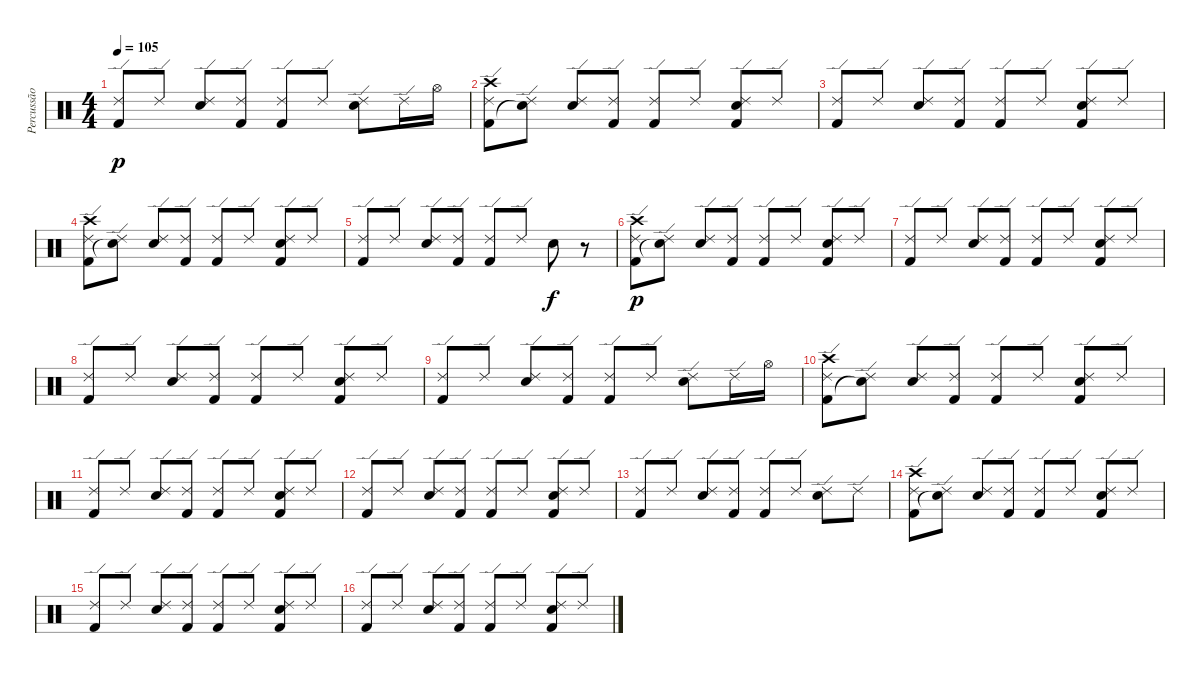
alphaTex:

\track ("Percussão" "Percussão") {instrument percussion}
\staff {score}
\articulation defaults
\ts (4 4)
\tempo 105
\clef neutral
\ks c
("Kick (hit) 2" "Ride (edge) 2").8{dy p} "Ride (edge) 2".8 ("Ride (edge) 2" "Electric Snare (hit)").8 ("Kick (hit) 2" "Ride (edge) 2").8 ("Kick (hit) 2" "Ride (edge) 2").8 "Ride (edge) 2".8 ("Ride (edge) 2" "Electric Snare (hit)").8 "Ride (edge) 2".16 "Hi-Hat (open)".16 |
("Kick (hit) 2" "Crash high (hit)" "Ride (edge) 2").8 ("Snare (hit)"{t} "Ride (edge) 2").8 ("Ride (edge) 2" "Electric Snare (hit)").8 ("Kick (hit) 2" "Ride (edge) 2").8 ("Kick (hit) 2" "Ride (edge) 2").8 "Ride (edge) 2".8 ("Kick (hit) 2" "Ride (edge) 2" "Electric Snare (hit)").8 "Ride (edge) 2".8 |
("Kick (hit) 2" "Ride (edge) 2").8 "Ride (edge) 2".8 ("Ride (edge) 2" "Electric Snare (hit)").8 ("Kick (hit) 2" "Ride (edge) 2").8 ("Kick (hit) 2" "Ride (edge) 2").8 "Ride (edge) 2".8 ("Kick (hit) 2" "Ride (edge) 2" "Electric Snare (hit)").8 "Ride (edge) 2".8 |
("Kick (hit) 2" "Crash high (hit)" "Ride (edge) 2").8 ("Snare (hit)"{t} "Ride (edge) 2").8 ("Ride (edge) 2" "Electric Snare (hit)").8 ("Kick (hit) 2" "Ride (edge) 2").8 ("Kick (hit) 2" "Ride (edge) 2").8 "Ride (edge) 2".8 ("Kick (hit) 2" "Ride (edge) 2" "Electric Snare (hit)").8 "Ride (edge) 2".8 |
("Kick (hit) 2" "Ride (edge) 2").8 "Ride (edge) 2".8 ("Ride (edge) 2" "Electric Snare (hit)").8 ("Kick (hit) 2" "Ride (edge) 2").8 ("Kick (hit) 2" "Ride (edge) 2").8 "Ride (edge) 2".8 "Electric Snare (hit)".8{dy f} r.8 |
("Kick (hit) 2" "Crash high (hit)" "Ride (edge) 2").8{dy p} ("Snare (hit)"{t} "Ride (edge) 2").8 ("Ride (edge) 2" "Electric Snare (hit)").8 ("Kick (hit) 2" "Ride (edge) 2").8 ("Kick (hit) 2" "Ride (edge) 2").8 "Ride (edge) 2".8 ("Kick (hit) 2" "Ride (edge) 2" "Electric Snare (hit)").8 "Ride (edge) 2".8 |
("Kick (hit) 2" "Ride (edge) 2").8 "Ride (edge) 2".8 ("Ride (edge) 2" "Electric Snare (hit)").8 ("Kick (hit) 2" "Ride (edge) 2").8 ("Kick (hit) 2" "Ride (edge) 2").8 "Ride (edge) 2".8 ("Kick (hit) 2" "Ride (edge) 2" "Electric Snare (hit)").8 "Ride (edge) 2".8 |
("Kick (hit) 2" "Ride (edge) 2").8 "Ride (edge) 2".8 ("Ride (edge) 2" "Electric Snare (hit)").8 ("Kick (hit) 2" "Ride (edge) 2").8 ("Kick (hit) 2" "Ride (edge) 2").8 "Ride (edge) 2".8 ("Kick (hit) 2" "Ride (edge) 2" "Electric Snare (hit)").8 "Ride (edge) 2".8 |
("Kick (hit) 2" "Ride (edge) 2").8 "Ride (edge) 2".8 ("Ride (edge) 2" "Electric Snare (hit)").8 ("Kick (hit) 2" "Ride (edge) 2").8 ("Kick (hit) 2" "Ride (edge) 2").8 "Ride (edge) 2".8 ("Ride (edge) 2" "Electric Snare (hit)").8 "Ride (edge) 2".16 "Hi-Hat (open)".16 |
("Kick (hit) 2" "Crash high (hit)" "Ride (edge) 2").8 ("Snare (hit)"{t} "Ride (edge) 2").8 ("Ride (edge) 2" "Electric Snare (hit)").8 ("Kick (hit) 2" "Ride (edge) 2").8 ("Kick (hit) 2" "Ride (edge) 2").8 "Ride (edge) 2".8 ("Kick (hit) 2" "Ride (edge) 2" "Electric Snare (hit)").8 "Ride (edge) 2".8 |
("Kick (hit) 2" "Ride (edge) 2").8 "Ride (edge) 2".8 ("Ride (edge) 2" "Electric Snare (hit)").8 ("Kick (hit) 2" "Ride (edge) 2").8 ("Kick (hit) 2" "Ride (edge) 2").8 "Ride (edge) 2".8 ("Kick (hit) 2" "Ride (edge) 2" "Electric Snare (hit)").8 "Ride (edge) 2".8 |
("Kick (hit) 2" "Ride (edge) 2").8 "Ride (edge) 2".8 ("Ride (edge) 2" "Electric Snare (hit)").8 ("Kick (hit) 2" "Ride (edge) 2").8 ("Kick (hit) 2" "Ride (edge) 2").8 "Ride (edge) 2".8 ("Kick (hit) 2" "Ride (edge) 2" "Electric Snare (hit)").8 "Ride (edge) 2".8 |
("Kick (hit) 2" "Ride (edge) 2").8 "Ride (edge) 2".8 ("Ride (edge) 2" "Electric Snare (hit)").8 ("Kick (hit) 2" "Ride (edge) 2").8 ("Kick (hit) 2" "Ride (edge) 2").8 "Ride (edge) 2".8 ("Ride (edge) 2" "Electric Snare (hit)").8 "Ride (edge) 2".8 |
("Kick (hit) 2" "Crash high (hit)" "Ride (edge) 2").8 ("Snare (hit)"{t} "Ride (edge) 2").8 ("Ride (edge) 2" "Electric Snare (hit)").8 ("Kick (hit) 2" "Ride (edge) 2").8 ("Kick (hit) 2" "Ride (edge) 2").8 "Ride (edge) 2".8 ("Kick (hit) 2" "Ride (edge) 2" "Electric Snare (hit)").8 "Ride (edge) 2".8 |
("Kick (hit) 2" "Ride (edge) 2").8 "Ride (edge) 2".8 ("Ride (edge) 2" "Electric Snare (hit)").8 ("Kick (hit) 2" "Ride (edge) 2").8 ("Kick (hit) 2" "Ride (edge) 2").8 "Ride (edge) 2".8 ("Kick (hit) 2" "Ride (edge) 2" "Electric Snare (hit)").8 "Ride (edge) 2".8 |
("Kick (hit) 2" "Ride (edge) 2").8 "Ride (edge) 2".8 ("Ride (edge) 2" "Electric Snare (hit)").8 ("Kick (hit) 2" "Ride (edge) 2").8 ("Kick (hit) 2" "Ride (edge) 2").8 "Ride (edge) 2".8 ("Kick (hit) 2" "Ride (edge) 2" "Electric Snare (hit)").8 "Ride (edge) 2".8
